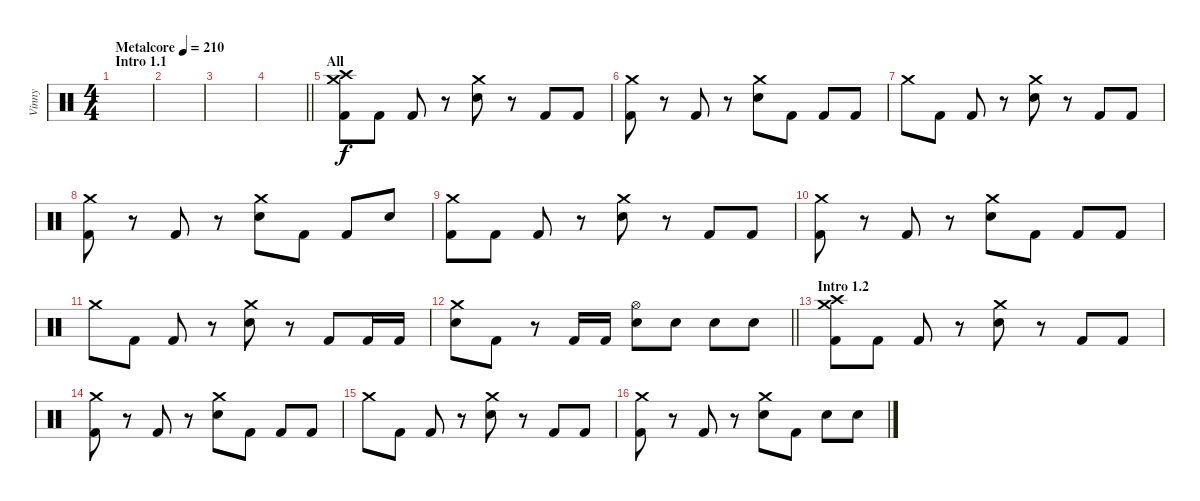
\track ("Vinny" "Vinny") {instrument percussion}
\staff {score}
\articulation defaults
\ts (4 4)
\section ("" "Intro 1.1")
\tempo (210 "Metalcore")
\clef neutral
\ks c
|
|
|
\barLineRight lightlight
|
\section ("" "All")
("Crash high (hit)" "Crash medium (hit)" "Kick (hit) 2").8 "Kick (hit) 2".8 "Kick (hit) 2".8 r.8 ("Crash medium (hit)" "Electric Snare (hit)").8 r.8 "Kick (hit) 2".8 "Kick (hit) 2".8 |
("Crash medium (hit)" "Kick (hit) 2").8 r.8 "Kick (hit) 2".8 r.8 ("Crash medium (hit)" "Electric Snare (hit)").8 "Kick (hit) 2".8 "Kick (hit) 2".8 "Kick (hit) 2".8 |
"Crash medium (hit)".8 "Kick (hit) 2".8 "Kick (hit) 2".8 r.8 ("Crash medium (hit)" "Electric Snare (hit)").8 r.8 "Kick (hit) 2".8 "Kick (hit) 2".8 |
("Crash medium (hit)" "Kick (hit) 2").8 r.8 "Kick (hit) 2".8 r.8 ("Crash medium (hit)" "Electric Snare (hit)").8 "Kick (hit) 2".8 "Kick (hit) 2".8 "Electric Snare (hit)".8 |
("Crash medium (hit)" "Kick (hit) 2").8 "Kick (hit) 2".8 "Kick (hit) 2".8 r.8 ("Crash medium (hit)" "Electric Snare (hit)").8 r.8 "Kick (hit) 2".8 "Kick (hit) 2".8 |
("Crash medium (hit)" "Kick (hit) 2").8 r.8 "Kick (hit) 2".8 r.8 ("Crash medium (hit)" "Electric Snare (hit)").8 "Kick (hit) 2".8 "Kick (hit) 2".8 "Kick (hit) 2".8 |
"Crash medium (hit)".8 "Kick (hit) 2".8 "Kick (hit) 2".8 r.8 ("Crash medium (hit)" "Electric Snare (hit)").8 r.8 "Kick (hit) 2".8 "Kick (hit) 2".16 "Kick (hit) 2".16 |
\barLineRight lightlight
("Crash medium (hit)" "Electric Snare (hit)").8 "Kick (hit) 2".8 r.8 "Kick (hit) 2".16 "Kick (hit) 2".16 ("Hi-Hat (open)" "Electric Snare (hit)").8 "Electric Snare (hit)".8 "Electric Snare (hit)".8 "Electric Snare (hit)".8 |
\section ("" "Intro 1.2")
("Crash high (hit)" "Crash medium (hit)" "Kick (hit) 2").8 "Kick (hit) 2".8 "Kick (hit) 2".8 r.8 ("Crash medium (hit)" "Electric Snare (hit)").8 r.8 "Kick (hit) 2".8 "Kick (hit) 2".8 |
("Crash medium (hit)" "Kick (hit) 2").8 r.8 "Kick (hit) 2".8 r.8 ("Crash medium (hit)" "Electric Snare (hit)").8 "Kick (hit) 2".8 "Kick (hit) 2".8 "Kick (hit) 2".8 |
"Crash medium (hit)".8 "Kick (hit) 2".8 "Kick (hit) 2".8 r.8 ("Crash medium (hit)" "Electric Snare (hit)").8 r.8 "Kick (hit) 2".8 "Kick (hit) 2".8 |
("Crash medium (hit)" "Kick (hit) 2").8 r.8 "Kick (hit) 2".8 r.8 ("Crash medium (hit)" "Electric Snare (hit)").8 "Kick (hit) 2".8 "Electric Snare (hit)".8 "Electric Snare (hit)".8
